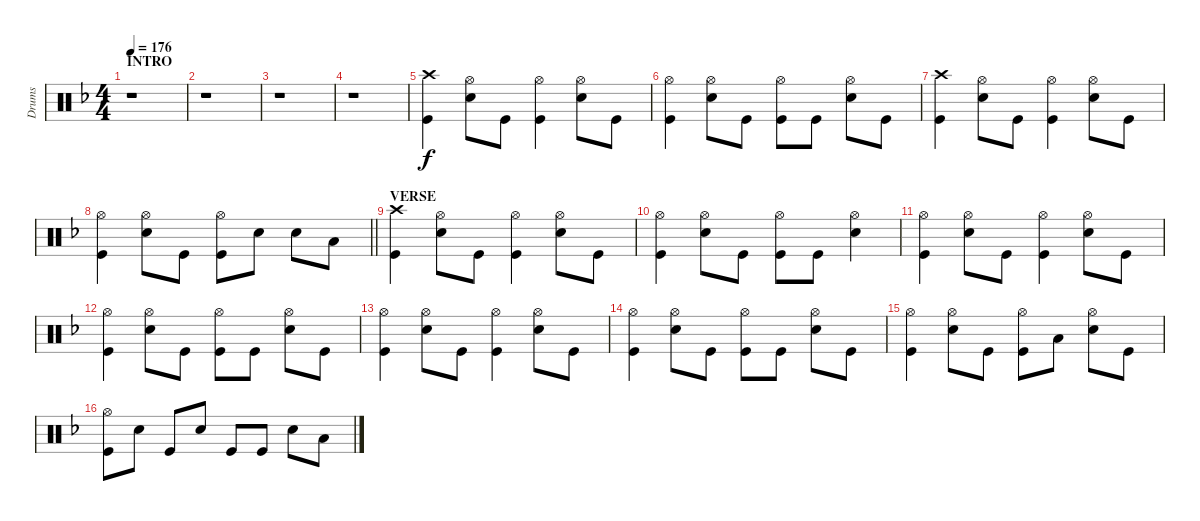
\track ("Drums" "Drums") {instrument percussion}
\staff {score}
\articulation defaults
\ts (4 4)
\section ("" "INTRO")
\tempo 176
\clef neutral
\ks f
r.1{dy f} |
r.1 |
r.1 |
r.1 |
("Crash high (hit)" "Kick (hit)").4 ("Hi-Hat (open)" "Snare (hit) 2").8 "Kick (hit)".8 ("Hi-Hat (open)" "Kick (hit)").4 ("Hi-Hat (open)" "Snare (hit) 2").8 "Kick (hit)".8 |
("Hi-Hat (open)" "Kick (hit)").4 ("Hi-Hat (open)" "Snare (hit) 2").8 "Kick (hit)".8 ("Hi-Hat (open)" "Kick (hit)").8 "Kick (hit)".8 ("Hi-Hat (open)" "Snare (hit) 2").8 "Kick (hit)".8 |
("Crash high (hit)" "Kick (hit)").4 ("Hi-Hat (open)" "Snare (hit) 2").8 "Kick (hit)".8 ("Hi-Hat (open)" "Kick (hit)").4 ("Hi-Hat (open)" "Snare (hit) 2").8 "Kick (hit)".8 |
\barLineRight lightlight
("Hi-Hat (open)" "Kick (hit)").4 ("Hi-Hat (open)" "Snare (hit) 2").8 "Kick (hit)".8 ("Hi-Hat (open)" "Kick (hit)").8 "Snare (hit) 2".8 "Snare (hit) 2".8 "Low Floor Tom (hit)".8 |
\section ("" "VERSE")
("Crash high (hit)" "Kick (hit)").4 ("Hi-Hat (open)" "Snare (hit) 2").8 "Kick (hit)".8 ("Hi-Hat (open)" "Kick (hit)").4 ("Hi-Hat (open)" "Snare (hit) 2").8 "Kick (hit)".8 |
("Hi-Hat (open)" "Kick (hit)").4 ("Hi-Hat (open)" "Snare (hit) 2").8 "Kick (hit)".8 ("Hi-Hat (open)" "Kick (hit)").8 "Kick (hit)".8 ("Hi-Hat (open)" "Snare (hit) 2").4 |
("Hi-Hat (open)" "Kick (hit)").4 ("Hi-Hat (open)" "Snare (hit) 2").8 "Kick (hit)".8 ("Hi-Hat (open)" "Kick (hit)").4 ("Hi-Hat (open)" "Snare (hit) 2").8 "Kick (hit)".8 |
("Hi-Hat (open)" "Kick (hit)").4 ("Hi-Hat (open)" "Snare (hit) 2").8 "Kick (hit)".8 ("Hi-Hat (open)" "Kick (hit)").8 "Kick (hit)".8 ("Hi-Hat (open)" "Snare (hit) 2").8 "Kick (hit)".8 |
("Hi-Hat (open)" "Kick (hit)").4 ("Hi-Hat (open)" "Snare (hit) 2").8 "Kick (hit)".8 ("Hi-Hat (open)" "Kick (hit)").4 ("Hi-Hat (open)" "Snare (hit) 2").8 "Kick (hit)".8 |
("Hi-Hat (open)" "Kick (hit)").4 ("Hi-Hat (open)" "Snare (hit) 2").8 "Kick (hit)".8 ("Hi-Hat (open)" "Kick (hit)").8 "Kick (hit)".8 ("Hi-Hat (open)" "Snare (hit) 2").8 "Kick (hit)".8 |
("Hi-Hat (open)" "Kick (hit)").4 ("Hi-Hat (open)" "Snare (hit) 2").8 "Kick (hit)".8 ("Hi-Hat (open)" "Kick (hit)").8 "Low Floor Tom (hit)".8 ("Hi-Hat (open)" "Snare (hit) 2").8 "Kick (hit)".8 |
("Hi-Hat (open)" "Kick (hit)").8 "Snare (hit) 2".8 "Kick (hit)".8 "Snare (hit) 2".8 "Kick (hit)".8 "Kick (hit)".8 "Snare (hit) 2".8 "Low Floor Tom (hit)".8
